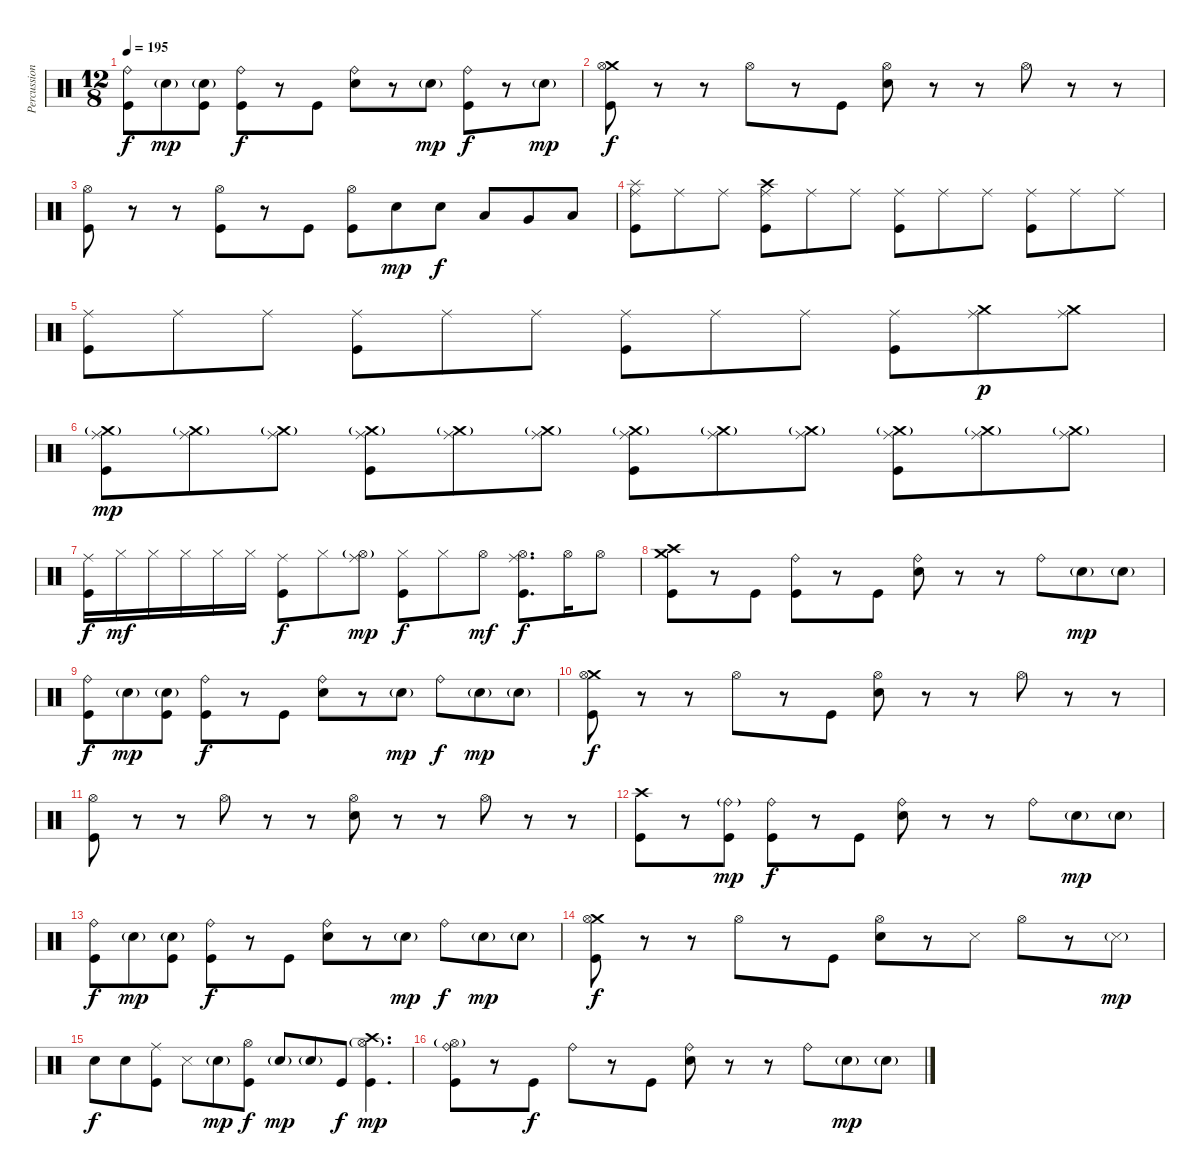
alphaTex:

\track ("Percussion" "Percussion") {instrument percussion}
\staff {score}
\articulation defaults
\ts (12 8)
\tempo 195
\clef neutral
\ks c
("Ride (bell)" "Kick (hit)").8{dy f} "Snare (hit) 2"{g}.8{dy mp} ("Snare (hit) 2"{g} "Kick (hit)").8 ("Ride (bell)" "Kick (hit)").8{dy f} r.8 "Kick (hit)".8 ("Ride (bell)" "Electric Snare (hit)").8 r.8 "Snare (hit) 2"{g}.8{dy mp} ("Ride (bell)" "Kick (hit)").8{dy f} r.8 "Snare (hit) 2"{g}.8{dy mp} |
("Crash medium (hit)" "Hi-Hat (open)" "Kick (hit)").8{dy f} r.8 r.8 "Hi-Hat (open)".8 r.8 "Kick (hit)".8 ("Hi-Hat (open)" "Electric Snare (hit)").8 r.8 r.8 "Hi-Hat (open)".8 r.8 r.8 |
("Hi-Hat (open)" "Kick (hit)").8 r.8 r.8 ("Hi-Hat (open)" "Kick (hit)").8 r.8 "Kick (hit)".8 ("Hi-Hat (open)" "Kick (hit)").8 "Electric Snare (hit)".8{dy mp} "Electric Snare (hit)".8{dy f} "Low Tom (hit)".8 "Very Low Tom (hit)".8 "Low Floor Tom (hit)".8 |
("Splash (hit)" "Ride (middle)" "Kick (hit)").8 "Ride (middle)".8 "Ride (middle)".8 ("Crash high (hit)" "Ride (middle)" "Kick (hit)").8 "Ride (middle)".8 "Ride (middle)".8 ("Ride (middle)" "Kick (hit)").8 "Ride (middle)".8 "Ride (middle)".8 ("Ride (middle)" "Kick (hit)").8 "Ride (middle)".8 "Ride (middle)".8 |
("Ride (middle)" "Kick (hit)").8 "Ride (middle)".8 "Ride (middle)".8 ("Ride (middle)" "Kick (hit)").8 "Ride (middle)".8 "Ride (middle)".8 ("Ride (middle)" "Kick (hit)").8 "Ride (middle)".8 "Ride (middle)".8 ("Ride (middle)" "Kick (hit)").8 ("Crash medium (hit)" "Ride (middle)").8{dy p} ("Crash medium (hit)" "Ride (middle)").8 |
("Crash medium (hit)"{g} "Ride (middle)" "Kick (hit)").8{dy mp} ("Crash medium (hit)"{g} "Ride (middle)").8 ("Crash medium (hit)"{g} "Ride (middle)").8 ("Crash medium (hit)"{g} "Ride (middle)" "Kick (hit)").8 ("Crash medium (hit)"{g} "Ride (middle)").8 ("Crash medium (hit)"{g} "Ride (middle)").8 ("Crash medium (hit)"{g} "Ride (middle)" "Kick (hit)").8 ("Crash medium (hit)"{g} "Ride (middle)").8 ("Crash medium (hit)"{g} "Ride (middle)").8 ("Crash medium (hit)"{g} "Ride (middle)" "Kick (hit)").8 ("Crash medium (hit)"{g} "Ride (middle)").8 ("Crash medium (hit)"{g} "Ride (middle)").8 |
("Ride (middle)" "Kick (hit)").16{dy f} "Hi-Hat (closed)".16{dy mf} "Hi-Hat (closed)".16 "Hi-Hat (closed)".16 "Hi-Hat (closed)".16 "Hi-Hat (closed)".16 ("Ride (middle)" "Kick (hit)").8{dy f} "Hi-Hat (closed)".8 ("Ride (middle)" "Hi-Hat (open)"{g}).8{dy mp} ("Hi-Hat (closed)" "Kick (hit)").8{dy f} "Hi-Hat (closed)".8 "Hi-Hat (open)".8{dy mf} ("Ride (middle)" "Hi-Hat (open)" "Kick (hit)").8{d dy f} "Hi-Hat (open)".16 "Hi-Hat (open)".8 |
("Crash medium (hit)" "Crash high (hit)" "Kick (hit)").8 r.8 "Kick (hit)".8 ("Ride (bell)" "Kick (hit)").8 r.8 "Kick (hit)".8 ("Ride (bell)" "Electric Snare (hit)").8 r.8 r.8 "Ride (bell)".8 "Snare (hit) 2"{g}.8{dy mp} "Snare (hit) 2"{g}.8 |
("Ride (bell)" "Kick (hit)").8{dy f} "Snare (hit) 2"{g}.8{dy mp} ("Snare (hit) 2"{g} "Kick (hit)").8 ("Ride (bell)" "Kick (hit)").8{dy f} r.8 "Kick (hit)".8 ("Ride (bell)" "Electric Snare (hit)").8 r.8 "Snare (hit) 2"{g}.8{dy mp} "Ride (bell)".8{dy f} "Snare (hit) 2"{g}.8{dy mp} "Snare (hit) 2"{g}.8 |
("Crash medium (hit)" "Hi-Hat (open)" "Kick (hit)").8{dy f} r.8 r.8 "Hi-Hat (open)".8 r.8 "Kick (hit)".8 ("Hi-Hat (open)" "Electric Snare (hit)").8 r.8 r.8 "Hi-Hat (open)".8 r.8 r.8 |
("Hi-Hat (open)" "Kick (hit)").8 r.8 r.8 "Hi-Hat (open)".8 r.8 r.8 ("Hi-Hat (open)" "Electric Snare (hit)").8 r.8 r.8 "Hi-Hat (open)".8 r.8 r.8 |
("Crash high (hit)" "Kick (hit)").8 r.8 ("Ride (bell)"{g} "Kick (hit)").8{dy mp} ("Ride (bell)" "Kick (hit)").8{dy f} r.8 "Kick (hit)".8 ("Ride (bell)" "Electric Snare (hit)").8 r.8 r.8 "Ride (bell)".8 "Snare (hit) 2"{g}.8{dy mp} "Snare (hit) 2"{g}.8 |
("Ride (bell)" "Kick (hit)").8{dy f} "Snare (hit) 2"{g}.8{dy mp} ("Snare (hit) 2"{g} "Kick (hit)").8 ("Ride (bell)" "Kick (hit)").8{dy f} r.8 "Kick (hit)".8 ("Ride (bell)" "Electric Snare (hit)").8 r.8 "Snare (hit) 2"{g}.8{dy mp} "Ride (bell)".8{dy f} "Snare (hit) 2"{g}.8{dy mp} "Snare (hit) 2"{g}.8 |
("Crash medium (hit)" "Hi-Hat (open)" "Kick (hit)").8{dy f} r.8 r.8 "Hi-Hat (open)".8 r.8 "Kick (hit)".8 ("Hi-Hat (open)" "Electric Snare (hit)").8 r.8 "Snare (side stick) 3".8 "Hi-Hat (open)".8 r.8 "Snare (side stick) 3"{g}.8{dy mp} |
"Electric Snare (hit)".8{dy f} "Electric Snare (hit)".8 ("Ride (middle)" "Kick (hit)").8 "Snare (side stick) 3".8 "Snare (hit) 2"{g}.8{dy mp} ("Hi-Hat (open)" "Kick (hit)").8{dy f} "Snare (hit) 2"{g}.8{dy mp} "Snare (hit) 2"{g}.8 "Kick (hit)".8{dy f} ("Crash high (hit)" "Hi-Hat (open)"{g} "Kick (hit)").4{d dy mp} |
("Ride (bell)" "Hi-Hat (open)"{g} "Kick (hit)").8 r.8 "Kick (hit)".8{dy f} "Ride (bell)".8 r.8 "Kick (hit)".8 ("Ride (bell)" "Electric Snare (hit)").8 r.8 r.8 "Ride (bell)".8 "Snare (hit) 2"{g}.8{dy mp} "Snare (hit) 2"{g}.8
